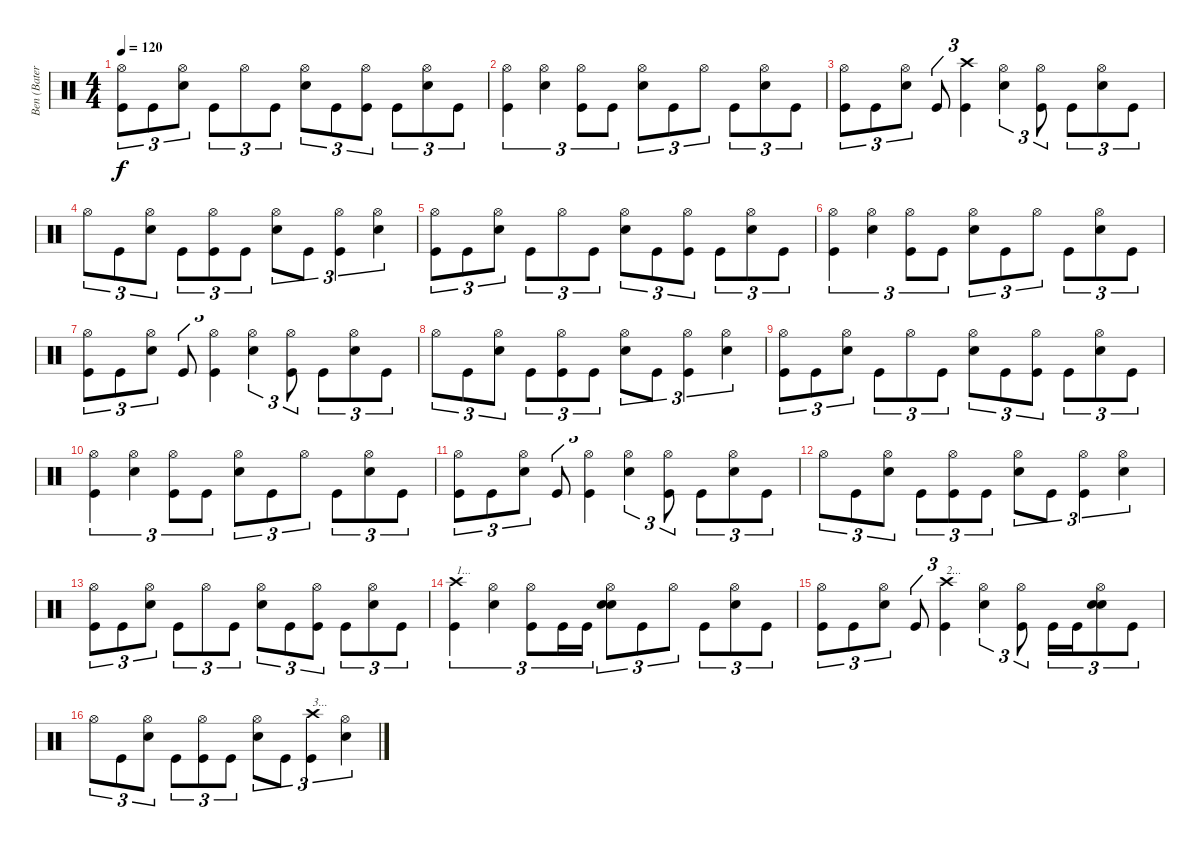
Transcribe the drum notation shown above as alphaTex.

\track ("Ben (Bateria)" "Ben (Bater") {instrument percussion}
\staff {score}
\articulation defaults
\ts (4 4)
\tempo 120
\clef neutral
\ks c
("Kick (hit)" "Hi-Hat (open)").8{tu (3 2) dy f} "Kick (hit)".8{tu (3 2)} ("Snare (hit) 2" "Hi-Hat (open)").8{tu (3 2)} "Kick (hit)".8{tu (3 2)} "Hi-Hat (open)".8{tu (3 2)} "Kick (hit)".8{tu (3 2)} ("Snare (hit) 2" "Hi-Hat (open)").8{tu (3 2)} "Kick (hit)".8{tu (3 2)} ("Kick (hit)" "Hi-Hat (open)").8{tu (3 2)} "Kick (hit)".8{tu (3 2)} ("Snare (hit) 2" "Hi-Hat (open)").8{tu (3 2)} "Kick (hit)".8{tu (3 2)} |
("Kick (hit)" "Hi-Hat (open)").4{tu (3 2)} ("Snare (hit) 2" "Hi-Hat (open)").4{tu (3 2)} ("Kick (hit)" "Hi-Hat (open)").8{tu (3 2)} "Kick (hit)".8{tu (3 2)} ("Snare (hit) 2" "Hi-Hat (open)").8{tu (3 2)} "Kick (hit)".8{tu (3 2)} "Hi-Hat (open)".8{tu (3 2)} "Kick (hit)".8{tu (3 2)} ("Snare (hit) 2" "Hi-Hat (open)").8{tu (3 2)} "Kick (hit)".8{tu (3 2)} |
("Kick (hit)" "Hi-Hat (open)").8{tu (3 2)} "Kick (hit)".8{tu (3 2)} ("Snare (hit) 2" "Hi-Hat (open)").8{tu (3 2)} "Kick (hit)".8{tu (3 2)} ("Kick (hit)" "Crash high (hit)").4{tu (3 2)} ("Snare (hit) 2" "Hi-Hat (open)").4{tu (3 2)} ("Kick (hit)" "Hi-Hat (open)").8{tu (3 2)} "Kick (hit)".8{tu (3 2)} ("Snare (hit) 2" "Hi-Hat (open)").8{tu (3 2)} "Kick (hit)".8{tu (3 2)} |
"Hi-Hat (open)".8{tu (3 2)} "Kick (hit)".8{tu (3 2)} ("Snare (hit) 2" "Hi-Hat (open)").8{tu (3 2)} "Kick (hit)".8{tu (3 2)} ("Kick (hit)" "Hi-Hat (open)").8{tu (3 2)} "Kick (hit)".8{tu (3 2)} ("Snare (hit) 2" "Hi-Hat (open)").8{tu (3 2)} "Kick (hit)".8{tu (3 2)} ("Kick (hit)" "Hi-Hat (open)").4{tu (3 2)} ("Snare (hit) 2" "Hi-Hat (open)").4{tu (3 2)} |
("Kick (hit)" "Hi-Hat (open)").8{tu (3 2)} "Kick (hit)".8{tu (3 2)} ("Snare (hit) 2" "Hi-Hat (open)").8{tu (3 2)} "Kick (hit)".8{tu (3 2)} "Hi-Hat (open)".8{tu (3 2)} "Kick (hit)".8{tu (3 2)} ("Snare (hit) 2" "Hi-Hat (open)").8{tu (3 2)} "Kick (hit)".8{tu (3 2)} ("Kick (hit)" "Hi-Hat (open)").8{tu (3 2)} "Kick (hit)".8{tu (3 2)} ("Snare (hit) 2" "Hi-Hat (open)").8{tu (3 2)} "Kick (hit)".8{tu (3 2)} |
("Kick (hit)" "Hi-Hat (open)").4{tu (3 2)} ("Snare (hit) 2" "Hi-Hat (open)").4{tu (3 2)} ("Kick (hit)" "Hi-Hat (open)").8{tu (3 2)} "Kick (hit)".8{tu (3 2)} ("Snare (hit) 2" "Hi-Hat (open)").8{tu (3 2)} "Kick (hit)".8{tu (3 2)} "Hi-Hat (open)".8{tu (3 2)} "Kick (hit)".8{tu (3 2)} ("Snare (hit) 2" "Hi-Hat (open)").8{tu (3 2)} "Kick (hit)".8{tu (3 2)} |
("Kick (hit)" "Hi-Hat (open)").8{tu (3 2)} "Kick (hit)".8{tu (3 2)} ("Snare (hit) 2" "Hi-Hat (open)").8{tu (3 2)} "Kick (hit)".8{tu (3 2)} ("Kick (hit)" "Hi-Hat (open)").4{tu (3 2)} ("Snare (hit) 2" "Hi-Hat (open)").4{tu (3 2)} ("Kick (hit)" "Hi-Hat (open)").8{tu (3 2)} "Kick (hit)".8{tu (3 2)} ("Snare (hit) 2" "Hi-Hat (open)").8{tu (3 2)} "Kick (hit)".8{tu (3 2)} |
"Hi-Hat (open)".8{tu (3 2)} "Kick (hit)".8{tu (3 2)} ("Snare (hit) 2" "Hi-Hat (open)").8{tu (3 2)} "Kick (hit)".8{tu (3 2)} ("Kick (hit)" "Hi-Hat (open)").8{tu (3 2)} "Kick (hit)".8{tu (3 2)} ("Snare (hit) 2" "Hi-Hat (open)").8{tu (3 2)} "Kick (hit)".8{tu (3 2)} ("Kick (hit)" "Hi-Hat (open)").4{tu (3 2)} ("Snare (hit) 2" "Hi-Hat (open)").4{tu (3 2)} |
("Kick (hit)" "Hi-Hat (open)").8{tu (3 2)} "Kick (hit)".8{tu (3 2)} ("Snare (hit) 2" "Hi-Hat (open)").8{tu (3 2)} "Kick (hit)".8{tu (3 2)} "Hi-Hat (open)".8{tu (3 2)} "Kick (hit)".8{tu (3 2)} ("Snare (hit) 2" "Hi-Hat (open)").8{tu (3 2)} "Kick (hit)".8{tu (3 2)} ("Kick (hit)" "Hi-Hat (open)").8{tu (3 2)} "Kick (hit)".8{tu (3 2)} ("Snare (hit) 2" "Hi-Hat (open)").8{tu (3 2)} "Kick (hit)".8{tu (3 2)} |
("Kick (hit)" "Hi-Hat (open)").4{tu (3 2)} ("Snare (hit) 2" "Hi-Hat (open)").4{tu (3 2)} ("Kick (hit)" "Hi-Hat (open)").8{tu (3 2)} "Kick (hit)".8{tu (3 2)} ("Snare (hit) 2" "Hi-Hat (open)").8{tu (3 2)} "Kick (hit)".8{tu (3 2)} "Hi-Hat (open)".8{tu (3 2)} "Kick (hit)".8{tu (3 2)} ("Snare (hit) 2" "Hi-Hat (open)").8{tu (3 2)} "Kick (hit)".8{tu (3 2)} |
("Kick (hit)" "Hi-Hat (open)").8{tu (3 2)} "Kick (hit)".8{tu (3 2)} ("Snare (hit) 2" "Hi-Hat (open)").8{tu (3 2)} "Kick (hit)".8{tu (3 2)} ("Kick (hit)" "Hi-Hat (open)").4{tu (3 2)} ("Snare (hit) 2" "Hi-Hat (open)").4{tu (3 2)} ("Kick (hit)" "Hi-Hat (open)").8{tu (3 2)} "Kick (hit)".8{tu (3 2)} ("Snare (hit) 2" "Hi-Hat (open)").8{tu (3 2)} "Kick (hit)".8{tu (3 2)} |
"Hi-Hat (open)".8{tu (3 2)} "Kick (hit)".8{tu (3 2)} ("Snare (hit) 2" "Hi-Hat (open)").8{tu (3 2)} "Kick (hit)".8{tu (3 2)} ("Kick (hit)" "Hi-Hat (open)").8{tu (3 2)} "Kick (hit)".8{tu (3 2)} ("Snare (hit) 2" "Hi-Hat (open)").8{tu (3 2)} "Kick (hit)".8{tu (3 2)} ("Kick (hit)" "Hi-Hat (open)").4{tu (3 2)} ("Snare (hit) 2" "Hi-Hat (open)").4{tu (3 2)} |
("Kick (hit)" "Hi-Hat (open)").8{tu (3 2)} "Kick (hit)".8{tu (3 2)} ("Snare (hit) 2" "Hi-Hat (open)").8{tu (3 2)} "Kick (hit)".8{tu (3 2)} "Hi-Hat (open)".8{tu (3 2)} "Kick (hit)".8{tu (3 2)} ("Snare (hit) 2" "Hi-Hat (open)").8{tu (3 2)} "Kick (hit)".8{tu (3 2)} ("Kick (hit)" "Hi-Hat (open)").8{tu (3 2)} "Kick (hit)".8{tu (3 2)} ("Snare (hit) 2" "Hi-Hat (open)").8{tu (3 2)} "Kick (hit)".8{tu (3 2)} |
("Kick (hit)" "Crash high (hit)").4{tu (3 2) txt "1..."} ("Snare (hit) 2" "Hi-Hat (open)").4{tu (3 2)} ("Kick (hit)" "Hi-Hat (open)").8{tu (3 2)} "Kick (hit)".16{tu (3 2)} "Kick (hit)".16{tu (3 2)} ("Snare (hit) 2" "Snare (hit) 2" "Hi-Hat (open)").8{tu (3 2) bu 60} "Kick (hit)".8{tu (3 2)} "Hi-Hat (open)".8{tu (3 2)} "Kick (hit)".8{tu (3 2)} ("Snare (hit) 2" "Hi-Hat (open)").8{tu (3 2)} "Kick (hit)".8{tu (3 2)} |
("Kick (hit)" "Hi-Hat (open)").8{tu (3 2)} "Kick (hit)".8{tu (3 2)} ("Snare (hit) 2" "Hi-Hat (open)").8{tu (3 2)} "Kick (hit)".8{tu (3 2)} ("Kick (hit)" "Crash high (hit)").4{tu (3 2) txt "2..."} ("Snare (hit) 2" "Hi-Hat (open)").4{tu (3 2)} ("Kick (hit)" "Hi-Hat (open)").8{tu (3 2)} "Kick (hit)".16{tu (3 2)} "Kick (hit)".16{tu (3 2)} ("Snare (hit) 2" "Snare (hit) 2" "Hi-Hat (open)").8{tu (3 2) bu 60} "Kick (hit)".8{tu (3 2)} |
"Hi-Hat (open)".8{tu (3 2)} "Kick (hit)".8{tu (3 2)} ("Snare (hit) 2" "Hi-Hat (open)").8{tu (3 2)} "Kick (hit)".8{tu (3 2)} ("Kick (hit)" "Hi-Hat (open)").8{tu (3 2)} "Kick (hit)".8{tu (3 2)} ("Snare (hit) 2" "Hi-Hat (open)").8{tu (3 2)} "Kick (hit)".8{tu (3 2)} ("Kick (hit)" "Crash high (hit)").4{tu (3 2) txt "3..."} ("Snare (hit) 2" "Hi-Hat (open)").4{tu (3 2)}
